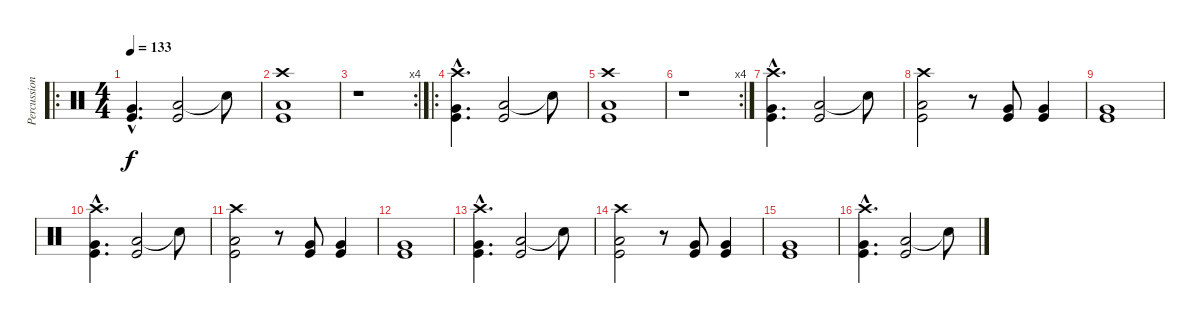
\track ("Percussion" "Percussion") {instrument percussion}
\staff {score}
\articulation defaults
\ro
\ts (4 4)
\tempo 133
\clef neutral
\ks c
("Very Low Tom (hit)"{hac} "Kick (hit)"{hac}).4{d dy f} ("Low Floor Tom (hit)" "Kick (hit)").2 "Snare (hit)"{t}.8 |
("Crash high (hit)" "Low Floor Tom (hit)" "Kick (hit)").1 |
\rc 4
r.1 |
\ro
("Crash high (hit)"{hac} "Very Low Tom (hit)"{hac} "Kick (hit)"{hac}).4{d} ("Low Floor Tom (hit)" "Kick (hit)").2 "Snare (hit)"{t}.8 |
("Crash high (hit)" "Low Floor Tom (hit)" "Kick (hit)").1 |
\rc 4
r.1 |
("Crash high (hit)"{hac} "Very Low Tom (hit)"{hac} "Kick (hit)"{hac}).4{d} ("Low Floor Tom (hit)" "Kick (hit)").2 "Snare (hit)"{t}.8 |
("Crash high (hit)" "Low Floor Tom (hit)" "Kick (hit)").2 r.8 ("Very Low Tom (hit)" "Kick (hit)").8 ("Very Low Tom (hit)" "Kick (hit)").4 |
("Very Low Tom (hit)" "Kick (hit)").1 |
("Crash high (hit)"{hac} "Very Low Tom (hit)"{hac} "Kick (hit)"{hac}).4{d} ("Low Floor Tom (hit)" "Kick (hit)").2 "Snare (hit)"{t}.8 |
("Crash high (hit)" "Low Floor Tom (hit)" "Kick (hit)").2 r.8 ("Very Low Tom (hit)" "Kick (hit)").8 ("Very Low Tom (hit)" "Kick (hit)").4 |
("Very Low Tom (hit)" "Kick (hit)").1 |
("Crash high (hit)"{hac} "Very Low Tom (hit)"{hac} "Kick (hit)"{hac}).4{d} ("Low Floor Tom (hit)" "Kick (hit)").2 "Snare (hit)"{t}.8 |
("Crash high (hit)" "Low Floor Tom (hit)" "Kick (hit)").2 r.8 ("Very Low Tom (hit)" "Kick (hit)").8 ("Very Low Tom (hit)" "Kick (hit)").4 |
("Very Low Tom (hit)" "Kick (hit)").1 |
("Crash high (hit)"{hac} "Very Low Tom (hit)"{hac} "Kick (hit)"{hac}).4{d} ("Low Floor Tom (hit)" "Kick (hit)").2 "Snare (hit)"{t}.8
